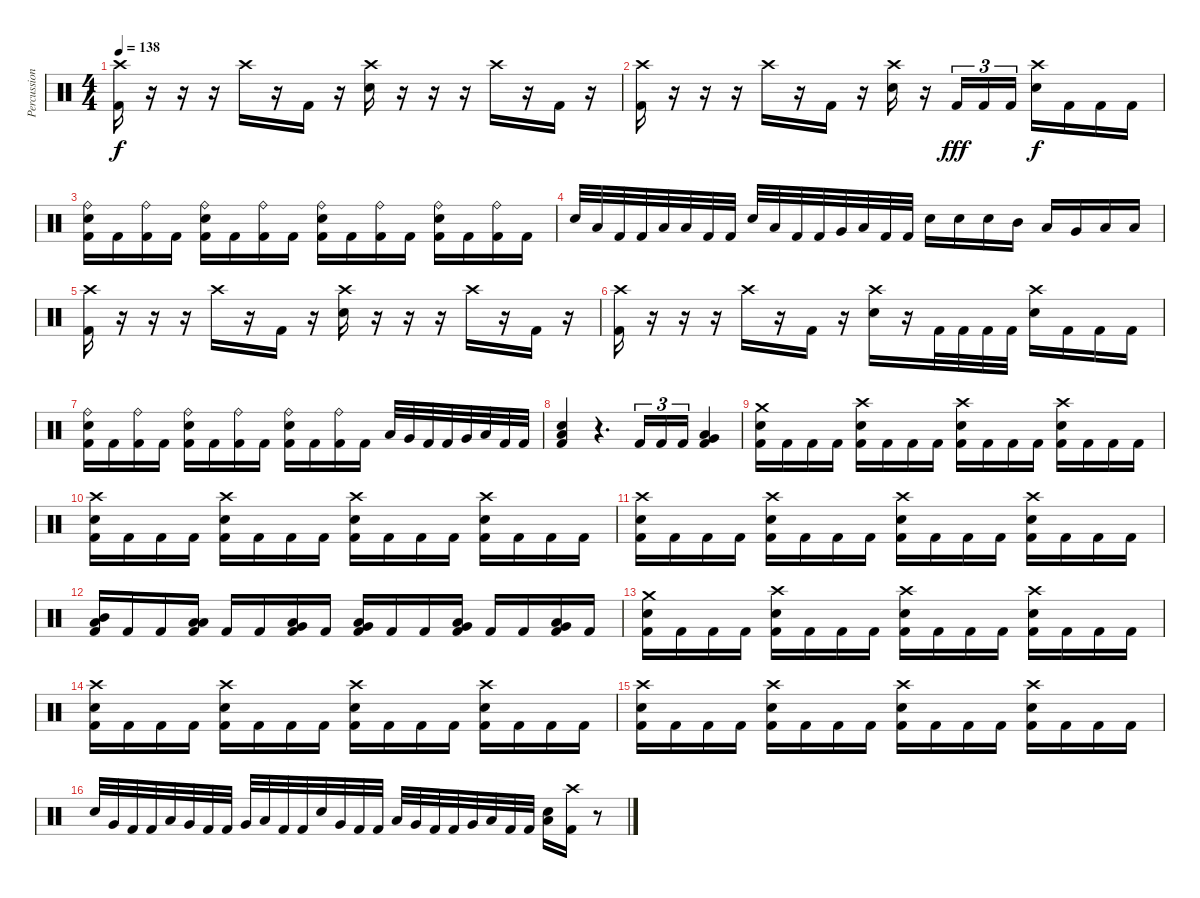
\track ("Percussion" "Percussion") {instrument percussion}
\staff {score}
\articulation defaults
\ts (4 4)
\tempo 138
\clef neutral
\ks c
("Crash high (hit)" "Kick (hit) 2").16{dy f} r.16 r.16 r.16 "Crash high (hit)".16 r.16 "Kick (hit) 2".16 r.16 ("Crash high (hit)" "Electric Snare (hit)").16 r.16 r.16 r.16 "Crash high (hit)".16 r.16 "Kick (hit) 2".16 r.16 |
("Crash high (hit)" "Kick (hit) 2").16 r.16 r.16 r.16 "Crash high (hit)".16 r.16 "Kick (hit) 2".16 r.16 ("Crash high (hit)" "Electric Snare (hit)").16 r.16 "Kick (hit) 2".16{tu (3 2) dy fff} "Kick (hit) 2".16{tu (3 2)} "Kick (hit) 2".16{tu (3 2)} ("Crash high (hit)" "Electric Snare (hit)").16{dy f} "Kick (hit) 2".16 "Kick (hit) 2".16 "Kick (hit) 2".16 |
("Ride (bell)" "Electric Snare (hit)" "Kick (hit) 2").16 "Kick (hit) 2".16 ("Ride (bell)" "Kick (hit) 2").16 "Kick (hit) 2".16 ("Ride (bell)" "Electric Snare (hit)" "Kick (hit) 2").16 "Kick (hit) 2".16 ("Ride (bell)" "Kick (hit) 2").16 "Kick (hit) 2".16 ("Ride (bell)" "Electric Snare (hit)" "Kick (hit) 2").16 "Kick (hit) 2".16 ("Ride (bell)" "Kick (hit) 2").16 "Kick (hit) 2".16 ("Ride (bell)" "Electric Snare (hit)" "Kick (hit) 2").16 "Kick (hit) 2".16 ("Ride (bell)" "Kick (hit) 2").16 "Kick (hit) 2".16 |
"Electric Snare (hit)".32 "Low Floor Tom (hit)".32 "Kick (hit) 2".32 "Kick (hit) 2".32 "Low Tom (hit)".32 "Low Floor Tom (hit)".32 "Kick (hit) 2".32 "Kick (hit) 2".32 "Electric Snare (hit)".32 "Low Floor Tom (hit)".32 "Kick (hit) 2".32 "Kick (hit) 2".32 "Very Low Tom (hit)".32 "Low Floor Tom (hit)".32 "Kick (hit) 2".32 "Kick (hit) 2".32 "Electric Snare (hit)".16 "Electric Snare (hit)".16 "Electric Snare (hit)".16 "Mid Tom (hit)".16 "Low Tom (hit)".16 "Very Low Tom (hit)".16 "Low Floor Tom (hit)".16 "Low Floor Tom (hit)".16 |
("Crash high (hit)" "Kick (hit) 2").16 r.16 r.16 r.16 "Crash high (hit)".16 r.16 "Kick (hit) 2".16 r.16 ("Crash high (hit)" "Electric Snare (hit)").16 r.16 r.16 r.16 "Crash high (hit)".16 r.16 "Kick (hit) 2".16 r.16 |
("Crash high (hit)" "Kick (hit) 2").16 r.16 r.16 r.16 "Crash high (hit)".16 r.16 "Kick (hit) 2".16 r.16 ("Crash high (hit)" "Electric Snare (hit)").16 r.16 "Kick (hit) 2".32 "Kick (hit) 2".32 "Kick (hit) 2".32 "Kick (hit) 2".32 ("Crash high (hit)" "Electric Snare (hit)").16 "Kick (hit) 2".16 "Kick (hit) 2".16 "Kick (hit) 2".16 |
("Ride (bell)" "Electric Snare (hit)" "Kick (hit) 2").16 "Kick (hit) 2".16 ("Ride (bell)" "Kick (hit) 2").16 "Kick (hit) 2".16 ("Ride (bell)" "Electric Snare (hit)" "Kick (hit) 2").16 "Kick (hit) 2".16 ("Ride (bell)" "Kick (hit) 2").16 "Kick (hit) 2".16 ("Ride (bell)" "Electric Snare (hit)" "Kick (hit) 2").16 "Kick (hit) 2".16 ("Ride (bell)" "Kick (hit) 2").16 "Kick (hit) 2".16 "Low Tom (hit)".32 "Very Low Tom (hit)".32 "Kick (hit) 2".32 "Kick (hit) 2".32 "Very Low Tom (hit)".32 "Low Floor Tom (hit)".32 "Kick (hit) 2".32 "Kick (hit) 2".32 |
("Electric Snare (hit)" "Low Floor Tom (hit)" "Kick (hit) 2").4 r.4{d} "Kick (hit) 2".16{tu (3 2)} "Kick (hit) 2".16{tu (3 2)} "Kick (hit) 2".16{tu (3 2)} ("Very Low Tom (hit)" "Low Floor Tom (hit)" "Kick (hit) 2").4 |
("Crash medium (hit)" "Electric Snare (hit)" "Kick (hit) 2").16 "Kick (hit) 2".16 "Kick (hit) 2".16 "Kick (hit) 2".16 ("Crash high (hit)" "Electric Snare (hit)" "Kick (hit) 2").16 "Kick (hit) 2".16 "Kick (hit) 2".16 "Kick (hit) 2".16 ("Crash high (hit)" "Electric Snare (hit)" "Kick (hit) 2").16 "Kick (hit) 2".16 "Kick (hit) 2".16 "Kick (hit) 2".16 ("Crash high (hit)" "Electric Snare (hit)" "Kick (hit) 2").16 "Kick (hit) 2".16 "Kick (hit) 2".16 "Kick (hit) 2".16 |
("Crash high (hit)" "Electric Snare (hit)" "Kick (hit) 2").16 "Kick (hit) 2".16 "Kick (hit) 2".16 "Kick (hit) 2".16 ("Crash high (hit)" "Electric Snare (hit)" "Kick (hit) 2").16 "Kick (hit) 2".16 "Kick (hit) 2".16 "Kick (hit) 2".16 ("Crash high (hit)" "Electric Snare (hit)" "Kick (hit) 2").16 "Kick (hit) 2".16 "Kick (hit) 2".16 "Kick (hit) 2".16 ("Crash high (hit)" "Electric Snare (hit)" "Kick (hit) 2").16 "Kick (hit) 2".16 "Kick (hit) 2".16 "Kick (hit) 2".16 |
("Crash high (hit)" "Electric Snare (hit)" "Kick (hit) 2").16 "Kick (hit) 2".16 "Kick (hit) 2".16 "Kick (hit) 2".16 ("Crash high (hit)" "Electric Snare (hit)" "Kick (hit) 2").16 "Kick (hit) 2".16 "Kick (hit) 2".16 "Kick (hit) 2".16 ("Crash high (hit)" "Electric Snare (hit)" "Kick (hit) 2").16 "Kick (hit) 2".16 "Kick (hit) 2".16 "Kick (hit) 2".16 ("Crash high (hit)" "Electric Snare (hit)" "Kick (hit) 2").16 "Kick (hit) 2".16 "Kick (hit) 2".16 "Kick (hit) 2".16 |
("Mid Tom (hit)" "Low Floor Tom (hit)" "Kick (hit) 2").16 "Kick (hit) 2".16 "Kick (hit) 2".16 ("Low Tom (hit)" "Low Floor Tom (hit)" "Kick (hit) 2").16 "Kick (hit) 2".16 "Kick (hit) 2".16 ("Very Low Tom (hit)" "Low Floor Tom (hit)" "Kick (hit) 2").16 "Kick (hit) 2".16 ("Very Low Tom (hit)" "Low Floor Tom (hit)" "Kick (hit) 2").16 "Kick (hit) 2".16 "Kick (hit) 2".16 ("Very Low Tom (hit)" "Low Floor Tom (hit)" "Kick (hit) 2").16 "Kick (hit) 2".16 "Kick (hit) 2".16 ("Very Low Tom (hit)" "Low Floor Tom (hit)" "Kick (hit) 2").16 "Kick (hit) 2".16 |
("Crash medium (hit)" "Electric Snare (hit)" "Kick (hit) 2").16 "Kick (hit) 2".16 "Kick (hit) 2".16 "Kick (hit) 2".16 ("Crash high (hit)" "Electric Snare (hit)" "Kick (hit) 2").16 "Kick (hit) 2".16 "Kick (hit) 2".16 "Kick (hit) 2".16 ("Crash high (hit)" "Electric Snare (hit)" "Kick (hit) 2").16 "Kick (hit) 2".16 "Kick (hit) 2".16 "Kick (hit) 2".16 ("Crash high (hit)" "Electric Snare (hit)" "Kick (hit) 2").16 "Kick (hit) 2".16 "Kick (hit) 2".16 "Kick (hit) 2".16 |
("Crash high (hit)" "Electric Snare (hit)" "Kick (hit) 2").16 "Kick (hit) 2".16 "Kick (hit) 2".16 "Kick (hit) 2".16 ("Crash high (hit)" "Electric Snare (hit)" "Kick (hit) 2").16 "Kick (hit) 2".16 "Kick (hit) 2".16 "Kick (hit) 2".16 ("Crash high (hit)" "Electric Snare (hit)" "Kick (hit) 2").16 "Kick (hit) 2".16 "Kick (hit) 2".16 "Kick (hit) 2".16 ("Crash high (hit)" "Electric Snare (hit)" "Kick (hit) 2").16 "Kick (hit) 2".16 "Kick (hit) 2".16 "Kick (hit) 2".16 |
("Crash high (hit)" "Electric Snare (hit)" "Kick (hit) 2").16 "Kick (hit) 2".16 "Kick (hit) 2".16 "Kick (hit) 2".16 ("Crash high (hit)" "Electric Snare (hit)" "Kick (hit) 2").16 "Kick (hit) 2".16 "Kick (hit) 2".16 "Kick (hit) 2".16 ("Crash high (hit)" "Electric Snare (hit)" "Kick (hit) 2").16 "Kick (hit) 2".16 "Kick (hit) 2".16 "Kick (hit) 2".16 ("Crash high (hit)" "Electric Snare (hit)" "Kick (hit) 2").16 "Kick (hit) 2".16 "Kick (hit) 2".16 "Kick (hit) 2".16 |
"Electric Snare (hit)".32 "Very Low Tom (hit)".32 "Kick (hit) 2".32 "Kick (hit) 2".32 "Low Tom (hit)".32 "Very Low Tom (hit)".32 "Kick (hit) 2".32 "Kick (hit) 2".32 "Very Low Tom (hit)".32 "Low Floor Tom (hit)".32 "Kick (hit) 2".32 "Kick (hit) 2".32 "Electric Snare (hit)".32 "Very Low Tom (hit)".32 "Kick (hit) 2".32 "Kick (hit) 2".32 "Low Tom (hit)".32 "Very Low Tom (hit)".32 "Kick (hit) 2".32 "Kick (hit) 2".32 "Very Low Tom (hit)".32 "Low Floor Tom (hit)".32 "Kick (hit) 2".32 "Kick (hit) 2".32 ("Electric Snare (hit)" "Low Floor Tom (hit)").16 ("Crash high (hit)" "Kick (hit) 2").16 r.8
